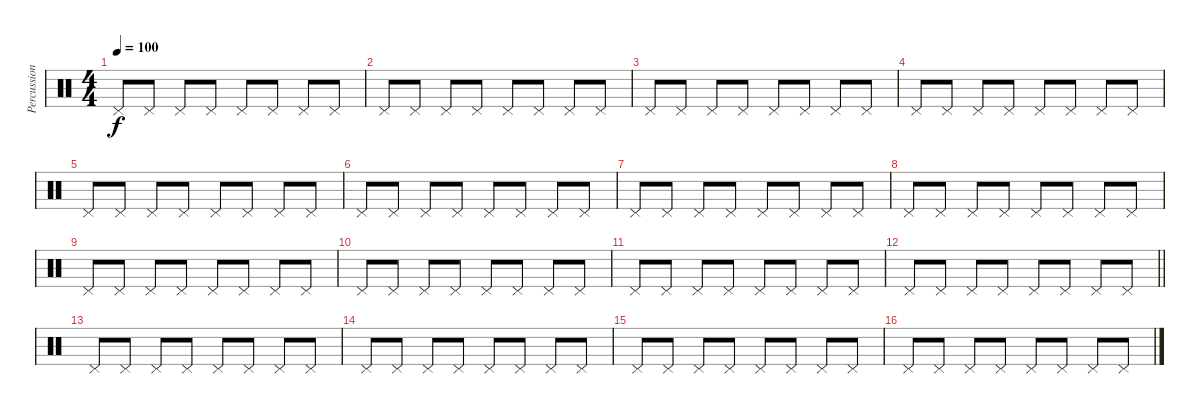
\track ("Percussions" "Percussion") {instrument percussion}
\staff {score}
\articulation defaults
\ts (4 4)
\tempo 100
\clef neutral
\ks c "Pedal Hi-Hat (hit)".8{dy f} "Pedal Hi-Hat (hit)".8 "Pedal Hi-Hat (hit)".8 "Pedal Hi-Hat (hit)".8 "Pedal Hi-Hat (hit)".8 "Pedal Hi-Hat (hit)".8 "Pedal Hi-Hat (hit)".8 "Pedal Hi-Hat (hit)".8
|
"Pedal Hi-Hat (hit)".8 "Pedal Hi-Hat (hit)".8 "Pedal Hi-Hat (hit)".8 "Pedal Hi-Hat (hit)".8 "Pedal Hi-Hat (hit)".8 "Pedal Hi-Hat (hit)".8 "Pedal Hi-Hat (hit)".8 "Pedal Hi-Hat (hit)".8 |
"Pedal Hi-Hat (hit)".8 "Pedal Hi-Hat (hit)".8 "Pedal Hi-Hat (hit)".8 "Pedal Hi-Hat (hit)".8 "Pedal Hi-Hat (hit)".8 "Pedal Hi-Hat (hit)".8 "Pedal Hi-Hat (hit)".8 "Pedal Hi-Hat (hit)".8 |
"Pedal Hi-Hat (hit)".8 "Pedal Hi-Hat (hit)".8 "Pedal Hi-Hat (hit)".8 "Pedal Hi-Hat (hit)".8 "Pedal Hi-Hat (hit)".8 "Pedal Hi-Hat (hit)".8 "Pedal Hi-Hat (hit)".8 "Pedal Hi-Hat (hit)".8 |
"Pedal Hi-Hat (hit)".8 "Pedal Hi-Hat (hit)".8 "Pedal Hi-Hat (hit)".8 "Pedal Hi-Hat (hit)".8 "Pedal Hi-Hat (hit)".8 "Pedal Hi-Hat (hit)".8 "Pedal Hi-Hat (hit)".8 "Pedal Hi-Hat (hit)".8 |
"Pedal Hi-Hat (hit)".8 "Pedal Hi-Hat (hit)".8 "Pedal Hi-Hat (hit)".8 "Pedal Hi-Hat (hit)".8 "Pedal Hi-Hat (hit)".8 "Pedal Hi-Hat (hit)".8 "Pedal Hi-Hat (hit)".8 "Pedal Hi-Hat (hit)".8 |
"Pedal Hi-Hat (hit)".8 "Pedal Hi-Hat (hit)".8 "Pedal Hi-Hat (hit)".8 "Pedal Hi-Hat (hit)".8 "Pedal Hi-Hat (hit)".8 "Pedal Hi-Hat (hit)".8 "Pedal Hi-Hat (hit)".8 "Pedal Hi-Hat (hit)".8 |
"Pedal Hi-Hat (hit)".8 "Pedal Hi-Hat (hit)".8 "Pedal Hi-Hat (hit)".8 "Pedal Hi-Hat (hit)".8 "Pedal Hi-Hat (hit)".8 "Pedal Hi-Hat (hit)".8 "Pedal Hi-Hat (hit)".8 "Pedal Hi-Hat (hit)".8 |
"Pedal Hi-Hat (hit)".8 "Pedal Hi-Hat (hit)".8 "Pedal Hi-Hat (hit)".8 "Pedal Hi-Hat (hit)".8 "Pedal Hi-Hat (hit)".8 "Pedal Hi-Hat (hit)".8 "Pedal Hi-Hat (hit)".8 "Pedal Hi-Hat (hit)".8 |
"Pedal Hi-Hat (hit)".8 "Pedal Hi-Hat (hit)".8 "Pedal Hi-Hat (hit)".8 "Pedal Hi-Hat (hit)".8 "Pedal Hi-Hat (hit)".8 "Pedal Hi-Hat (hit)".8 "Pedal Hi-Hat (hit)".8 "Pedal Hi-Hat (hit)".8 |
"Pedal Hi-Hat (hit)".8 "Pedal Hi-Hat (hit)".8 "Pedal Hi-Hat (hit)".8 "Pedal Hi-Hat (hit)".8 "Pedal Hi-Hat (hit)".8 "Pedal Hi-Hat (hit)".8 "Pedal Hi-Hat (hit)".8 "Pedal Hi-Hat (hit)".8 |
\barLineRight lightlight "Pedal Hi-Hat (hit)".8 "Pedal Hi-Hat (hit)".8 "Pedal Hi-Hat (hit)".8 "Pedal Hi-Hat (hit)".8 "Pedal Hi-Hat (hit)".8 "Pedal Hi-Hat (hit)".8 "Pedal Hi-Hat (hit)".8 "Pedal Hi-Hat (hit)".8
|
"Pedal Hi-Hat (hit)".8 "Pedal Hi-Hat (hit)".8 "Pedal Hi-Hat (hit)".8 "Pedal Hi-Hat (hit)".8 "Pedal Hi-Hat (hit)".8 "Pedal Hi-Hat (hit)".8 "Pedal Hi-Hat (hit)".8 "Pedal Hi-Hat (hit)".8 |
"Pedal Hi-Hat (hit)".8 "Pedal Hi-Hat (hit)".8 "Pedal Hi-Hat (hit)".8 "Pedal Hi-Hat (hit)".8 "Pedal Hi-Hat (hit)".8 "Pedal Hi-Hat (hit)".8 "Pedal Hi-Hat (hit)".8 "Pedal Hi-Hat (hit)".8 |
"Pedal Hi-Hat (hit)".8 "Pedal Hi-Hat (hit)".8 "Pedal Hi-Hat (hit)".8 "Pedal Hi-Hat (hit)".8 "Pedal Hi-Hat (hit)".8 "Pedal Hi-Hat (hit)".8 "Pedal Hi-Hat (hit)".8 "Pedal Hi-Hat (hit)".8 |
"Pedal Hi-Hat (hit)".8 "Pedal Hi-Hat (hit)".8 "Pedal Hi-Hat (hit)".8 "Pedal Hi-Hat (hit)".8 "Pedal Hi-Hat (hit)".8 "Pedal Hi-Hat (hit)".8 "Pedal Hi-Hat (hit)".8 "Pedal Hi-Hat (hit)".8
